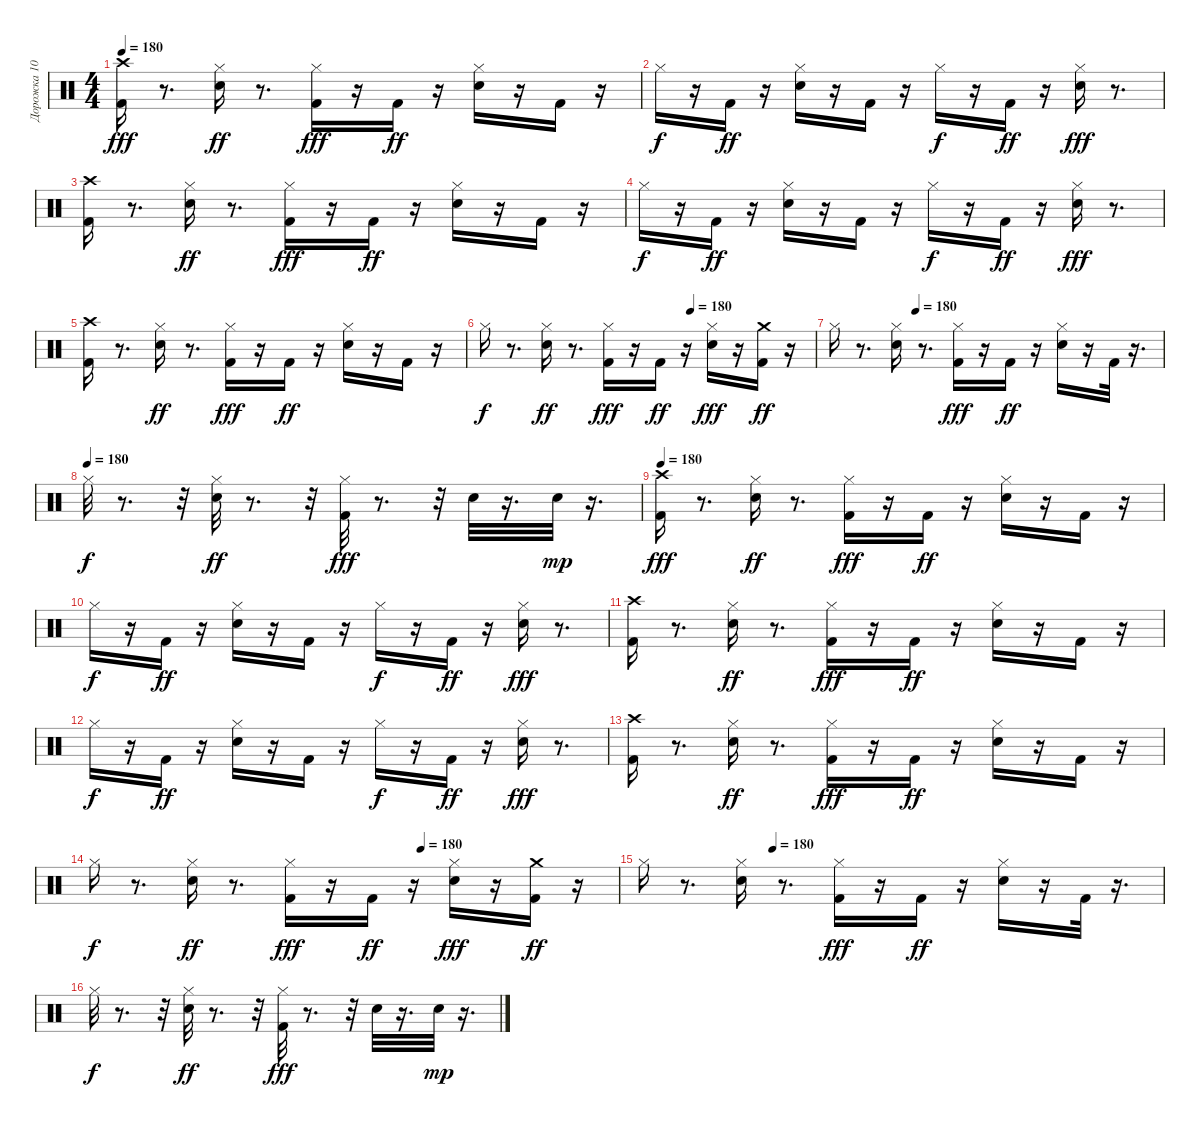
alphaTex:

\track ("Дорожка 10" "Дорожка 10") {instrument percussion}
\staff {score}
\articulation defaults
\ts (4 4)
\tempo 180
\clef neutral
\ks c
("Kick (hit) 2" "Crash high (hit)").16{dy fff} r.8{d} ("Snare (hit) 2" "Hi-Hat (closed)").16{dy ff} r.8{d} ("Kick (hit) 2" "Hi-Hat (closed)").16{dy fff} r.16 "Kick (hit) 2".16{dy ff} r.16 ("Snare (hit) 2" "Hi-Hat (closed)").16 r.16 "Kick (hit) 2".16 r.16 |
"Hi-Hat (closed)".16{dy f} r.16 "Kick (hit) 2".16{dy ff} r.16 ("Snare (hit) 2" "Hi-Hat (closed)").16 r.16 "Kick (hit) 2".16 r.16 "Hi-Hat (closed)".16{dy f} r.16 "Kick (hit) 2".16{dy ff} r.16 ("Snare (hit) 2" "Hi-Hat (closed)").16{dy fff} r.8{d} |
("Kick (hit) 2" "Crash high (hit)").16 r.8{d} ("Snare (hit) 2" "Hi-Hat (closed)").16{dy ff} r.8{d} ("Kick (hit) 2" "Hi-Hat (closed)").16{dy fff} r.16 "Kick (hit) 2".16{dy ff} r.16 ("Snare (hit) 2" "Hi-Hat (closed)").16 r.16 "Kick (hit) 2".16 r.16 |
"Hi-Hat (closed)".16{dy f} r.16 "Kick (hit) 2".16{dy ff} r.16 ("Snare (hit) 2" "Hi-Hat (closed)").16 r.16 "Kick (hit) 2".16 r.16 "Hi-Hat (closed)".16{dy f} r.16 "Kick (hit) 2".16{dy ff} r.16 ("Snare (hit) 2" "Hi-Hat (closed)").16{dy fff} r.8{d} |
("Kick (hit) 2" "Crash high (hit)").16 r.8{d} ("Snare (hit) 2" "Hi-Hat (closed)").16{dy ff} r.8{d} ("Kick (hit) 2" "Hi-Hat (closed)").16{dy fff} r.16 "Kick (hit) 2".16{dy ff} r.16 ("Snare (hit) 2" "Hi-Hat (closed)").16 r.16 "Kick (hit) 2".16 r.16 |
\tempo (180 0.625)
"Hi-Hat (closed)".16{dy f} r.8{d} ("Snare (hit) 2" "Hi-Hat (closed)").16{dy ff} r.8{d} ("Kick (hit) 2" "Hi-Hat (closed)").16{dy fff} r.16 "Kick (hit) 2".16{dy ff} r.16 ("Snare (hit) 2" "Hi-Hat (closed)").16{dy fff} r.16 ("Kick (hit) 2" "Crash medium (hit)").16{dy ff} r.16 |
\tempo (180 0.25)
"Hi-Hat (closed)".16 r.8{d} ("Snare (hit) 2" "Hi-Hat (closed)").16 r.8{d} ("Kick (hit) 2" "Hi-Hat (closed)").16{dy fff} r.16 "Kick (hit) 2".16{dy ff} r.16 ("Snare (hit) 2" "Hi-Hat (closed)").16 r.16 "Kick (hit) 2".32 r.16{d} |
\tempo (180)
"Hi-Hat (closed)".32{dy f} r.8{d} r.32 ("Snare (hit) 2" "Hi-Hat (closed)").32{dy ff} r.8{d} r.32 ("Kick (hit) 2" "Hi-Hat (closed)").32{dy fff} r.8{d} r.32 "Snare (hit) 2".32 r.16{d} "Snare (hit) 2".32{dy mp} r.16{d} |
\tempo 180
("Kick (hit) 2" "Crash high (hit)").16{dy fff} r.8{d} ("Snare (hit) 2" "Hi-Hat (closed)").16{dy ff} r.8{d} ("Kick (hit) 2" "Hi-Hat (closed)").16{dy fff} r.16 "Kick (hit) 2".16{dy ff} r.16 ("Snare (hit) 2" "Hi-Hat (closed)").16 r.16 "Kick (hit) 2".16 r.16 |
"Hi-Hat (closed)".16{dy f} r.16 "Kick (hit) 2".16{dy ff} r.16 ("Snare (hit) 2" "Hi-Hat (closed)").16 r.16 "Kick (hit) 2".16 r.16 "Hi-Hat (closed)".16{dy f} r.16 "Kick (hit) 2".16{dy ff} r.16 ("Snare (hit) 2" "Hi-Hat (closed)").16{dy fff} r.8{d} |
("Kick (hit) 2" "Crash high (hit)").16 r.8{d} ("Snare (hit) 2" "Hi-Hat (closed)").16{dy ff} r.8{d} ("Kick (hit) 2" "Hi-Hat (closed)").16{dy fff} r.16 "Kick (hit) 2".16{dy ff} r.16 ("Snare (hit) 2" "Hi-Hat (closed)").16 r.16 "Kick (hit) 2".16 r.16 |
"Hi-Hat (closed)".16{dy f} r.16 "Kick (hit) 2".16{dy ff} r.16 ("Snare (hit) 2" "Hi-Hat (closed)").16 r.16 "Kick (hit) 2".16 r.16 "Hi-Hat (closed)".16{dy f} r.16 "Kick (hit) 2".16{dy ff} r.16 ("Snare (hit) 2" "Hi-Hat (closed)").16{dy fff} r.8{d} |
("Kick (hit) 2" "Crash high (hit)").16 r.8{d} ("Snare (hit) 2" "Hi-Hat (closed)").16{dy ff} r.8{d} ("Kick (hit) 2" "Hi-Hat (closed)").16{dy fff} r.16 "Kick (hit) 2".16{dy ff} r.16 ("Snare (hit) 2" "Hi-Hat (closed)").16 r.16 "Kick (hit) 2".16 r.16 |
\tempo (180 0.625)
"Hi-Hat (closed)".16{dy f} r.8{d} ("Snare (hit) 2" "Hi-Hat (closed)").16{dy ff} r.8{d} ("Kick (hit) 2" "Hi-Hat (closed)").16{dy fff} r.16 "Kick (hit) 2".16{dy ff} r.16 ("Snare (hit) 2" "Hi-Hat (closed)").16{dy fff} r.16 ("Kick (hit) 2" "Crash medium (hit)").16{dy ff} r.16 |
\tempo (180 0.25)
"Hi-Hat (closed)".16 r.8{d} ("Snare (hit) 2" "Hi-Hat (closed)").16 r.8{d} ("Kick (hit) 2" "Hi-Hat (closed)").16{dy fff} r.16 "Kick (hit) 2".16{dy ff} r.16 ("Snare (hit) 2" "Hi-Hat (closed)").16 r.16 "Kick (hit) 2".32 r.16{d} |
"Hi-Hat (closed)".32{dy f} r.8{d} r.32 ("Snare (hit) 2" "Hi-Hat (closed)").32{dy ff} r.8{d} r.32 ("Kick (hit) 2" "Hi-Hat (closed)").32{dy fff} r.8{d} r.32 "Snare (hit) 2".32 r.16{d} "Snare (hit) 2".32{dy mp} r.16{d}
